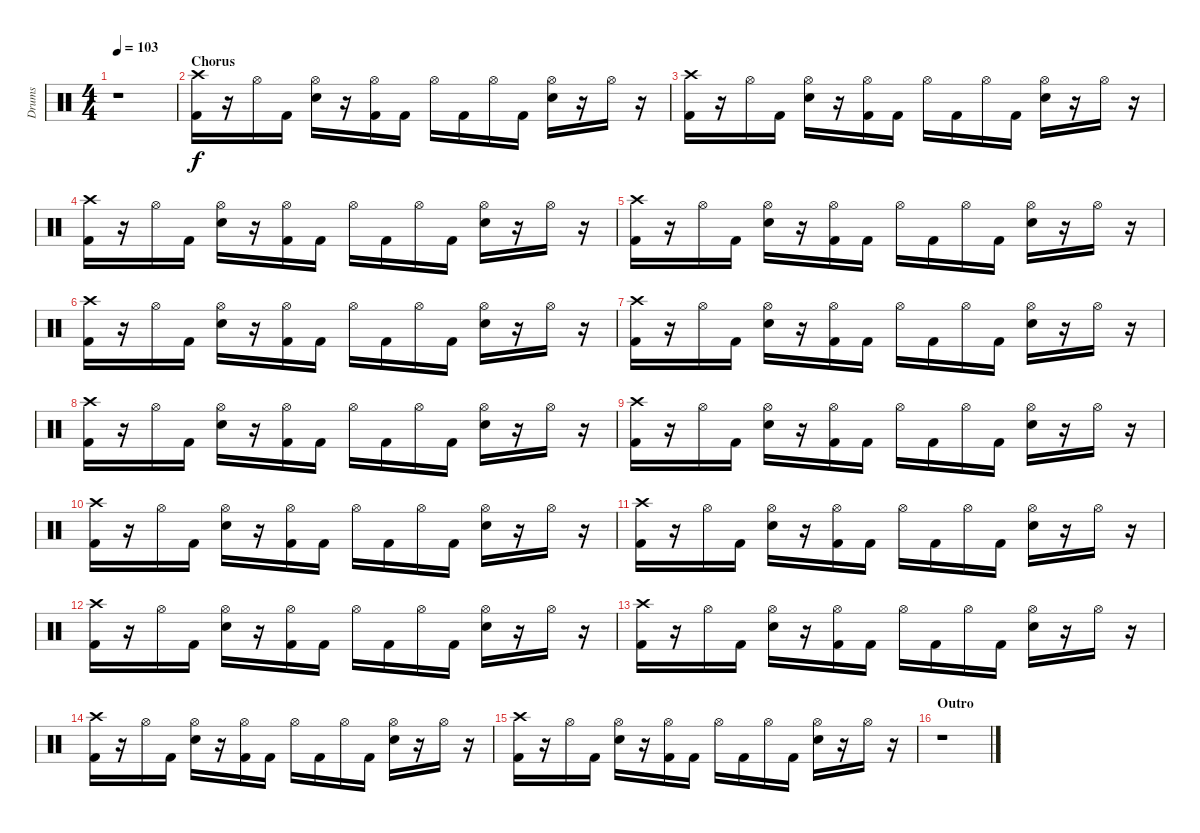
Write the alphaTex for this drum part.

\track ("Drums" "Drums") {instrument percussion}
\staff {score}
\articulation defaults
\ts (4 4)
\tempo 103
\clef neutral
\ks c
r.1{dy f} |
\section ("" "Chorus")
("Crash high (hit)" "Kick (hit) 2").16 r.16 "Hi-Hat (open)".16 "Kick (hit) 2".16 ("Hi-Hat (open)" "Electric Snare (hit)").16 r.16 ("Hi-Hat (open)" "Kick (hit) 2").16 "Kick (hit) 2".16 "Hi-Hat (open)".16 "Kick (hit) 2".16 "Hi-Hat (open)".16 "Kick (hit) 2".16 ("Hi-Hat (open)" "Electric Snare (hit)").16 r.16 "Hi-Hat (open)".16 r.16 |
("Crash high (hit)" "Kick (hit) 2").16 r.16 "Hi-Hat (open)".16 "Kick (hit) 2".16 ("Hi-Hat (open)" "Electric Snare (hit)").16 r.16 ("Hi-Hat (open)" "Kick (hit) 2").16 "Kick (hit) 2".16 "Hi-Hat (open)".16 "Kick (hit) 2".16 "Hi-Hat (open)".16 "Kick (hit) 2".16 ("Hi-Hat (open)" "Electric Snare (hit)").16 r.16 "Hi-Hat (open)".16 r.16 |
("Crash high (hit)" "Kick (hit) 2").16 r.16 "Hi-Hat (open)".16 "Kick (hit) 2".16 ("Hi-Hat (open)" "Electric Snare (hit)").16 r.16 ("Hi-Hat (open)" "Kick (hit) 2").16 "Kick (hit) 2".16 "Hi-Hat (open)".16 "Kick (hit) 2".16 "Hi-Hat (open)".16 "Kick (hit) 2".16 ("Hi-Hat (open)" "Electric Snare (hit)").16 r.16 "Hi-Hat (open)".16 r.16 |
("Crash high (hit)" "Kick (hit) 2").16 r.16 "Hi-Hat (open)".16 "Kick (hit) 2".16 ("Hi-Hat (open)" "Electric Snare (hit)").16 r.16 ("Hi-Hat (open)" "Kick (hit) 2").16 "Kick (hit) 2".16 "Hi-Hat (open)".16 "Kick (hit) 2".16 "Hi-Hat (open)".16 "Kick (hit) 2".16 ("Hi-Hat (open)" "Electric Snare (hit)").16 r.16 "Hi-Hat (open)".16 r.16 |
("Crash high (hit)" "Kick (hit) 2").16 r.16 "Hi-Hat (open)".16 "Kick (hit) 2".16 ("Hi-Hat (open)" "Electric Snare (hit)").16 r.16 ("Hi-Hat (open)" "Kick (hit) 2").16 "Kick (hit) 2".16 "Hi-Hat (open)".16 "Kick (hit) 2".16 "Hi-Hat (open)".16 "Kick (hit) 2".16 ("Hi-Hat (open)" "Electric Snare (hit)").16 r.16 "Hi-Hat (open)".16 r.16 |
("Crash high (hit)" "Kick (hit) 2").16 r.16 "Hi-Hat (open)".16 "Kick (hit) 2".16 ("Hi-Hat (open)" "Electric Snare (hit)").16 r.16 ("Hi-Hat (open)" "Kick (hit) 2").16 "Kick (hit) 2".16 "Hi-Hat (open)".16 "Kick (hit) 2".16 "Hi-Hat (open)".16 "Kick (hit) 2".16 ("Hi-Hat (open)" "Electric Snare (hit)").16 r.16 "Hi-Hat (open)".16 r.16 |
("Crash high (hit)" "Kick (hit) 2").16 r.16 "Hi-Hat (open)".16 "Kick (hit) 2".16 ("Hi-Hat (open)" "Electric Snare (hit)").16 r.16 ("Hi-Hat (open)" "Kick (hit) 2").16 "Kick (hit) 2".16 "Hi-Hat (open)".16 "Kick (hit) 2".16 "Hi-Hat (open)".16 "Kick (hit) 2".16 ("Hi-Hat (open)" "Electric Snare (hit)").16 r.16 "Hi-Hat (open)".16 r.16 |
("Crash high (hit)" "Kick (hit) 2").16 r.16 "Hi-Hat (open)".16 "Kick (hit) 2".16 ("Hi-Hat (open)" "Electric Snare (hit)").16 r.16 ("Hi-Hat (open)" "Kick (hit) 2").16 "Kick (hit) 2".16 "Hi-Hat (open)".16 "Kick (hit) 2".16 "Hi-Hat (open)".16 "Kick (hit) 2".16 ("Hi-Hat (open)" "Electric Snare (hit)").16 r.16 "Hi-Hat (open)".16 r.16 |
("Crash high (hit)" "Kick (hit) 2").16 r.16 "Hi-Hat (open)".16 "Kick (hit) 2".16 ("Hi-Hat (open)" "Electric Snare (hit)").16 r.16 ("Hi-Hat (open)" "Kick (hit) 2").16 "Kick (hit) 2".16 "Hi-Hat (open)".16 "Kick (hit) 2".16 "Hi-Hat (open)".16 "Kick (hit) 2".16 ("Hi-Hat (open)" "Electric Snare (hit)").16 r.16 "Hi-Hat (open)".16 r.16 |
("Crash high (hit)" "Kick (hit) 2").16 r.16 "Hi-Hat (open)".16 "Kick (hit) 2".16 ("Hi-Hat (open)" "Electric Snare (hit)").16 r.16 ("Hi-Hat (open)" "Kick (hit) 2").16 "Kick (hit) 2".16 "Hi-Hat (open)".16 "Kick (hit) 2".16 "Hi-Hat (open)".16 "Kick (hit) 2".16 ("Hi-Hat (open)" "Electric Snare (hit)").16 r.16 "Hi-Hat (open)".16 r.16 |
("Crash high (hit)" "Kick (hit) 2").16 r.16 "Hi-Hat (open)".16 "Kick (hit) 2".16 ("Hi-Hat (open)" "Electric Snare (hit)").16 r.16 ("Hi-Hat (open)" "Kick (hit) 2").16 "Kick (hit) 2".16 "Hi-Hat (open)".16 "Kick (hit) 2".16 "Hi-Hat (open)".16 "Kick (hit) 2".16 ("Hi-Hat (open)" "Electric Snare (hit)").16 r.16 "Hi-Hat (open)".16 r.16 |
("Crash high (hit)" "Kick (hit) 2").16 r.16 "Hi-Hat (open)".16 "Kick (hit) 2".16 ("Hi-Hat (open)" "Electric Snare (hit)").16 r.16 ("Hi-Hat (open)" "Kick (hit) 2").16 "Kick (hit) 2".16 "Hi-Hat (open)".16 "Kick (hit) 2".16 "Hi-Hat (open)".16 "Kick (hit) 2".16 ("Hi-Hat (open)" "Electric Snare (hit)").16 r.16 "Hi-Hat (open)".16 r.16 |
("Crash high (hit)" "Kick (hit) 2").16 r.16 "Hi-Hat (open)".16 "Kick (hit) 2".16 ("Hi-Hat (open)" "Electric Snare (hit)").16 r.16 ("Hi-Hat (open)" "Kick (hit) 2").16 "Kick (hit) 2".16 "Hi-Hat (open)".16 "Kick (hit) 2".16 "Hi-Hat (open)".16 "Kick (hit) 2".16 ("Hi-Hat (open)" "Electric Snare (hit)").16 r.16 "Hi-Hat (open)".16 r.16 |
("Crash high (hit)" "Kick (hit) 2").16 r.16 "Hi-Hat (open)".16 "Kick (hit) 2".16 ("Hi-Hat (open)" "Electric Snare (hit)").16 r.16 ("Hi-Hat (open)" "Kick (hit) 2").16 "Kick (hit) 2".16 "Hi-Hat (open)".16 "Kick (hit) 2".16 "Hi-Hat (open)".16 "Kick (hit) 2".16 ("Hi-Hat (open)" "Electric Snare (hit)").16 r.16 "Hi-Hat (open)".16 r.16 |
\section ("" "Outro")
r.1
